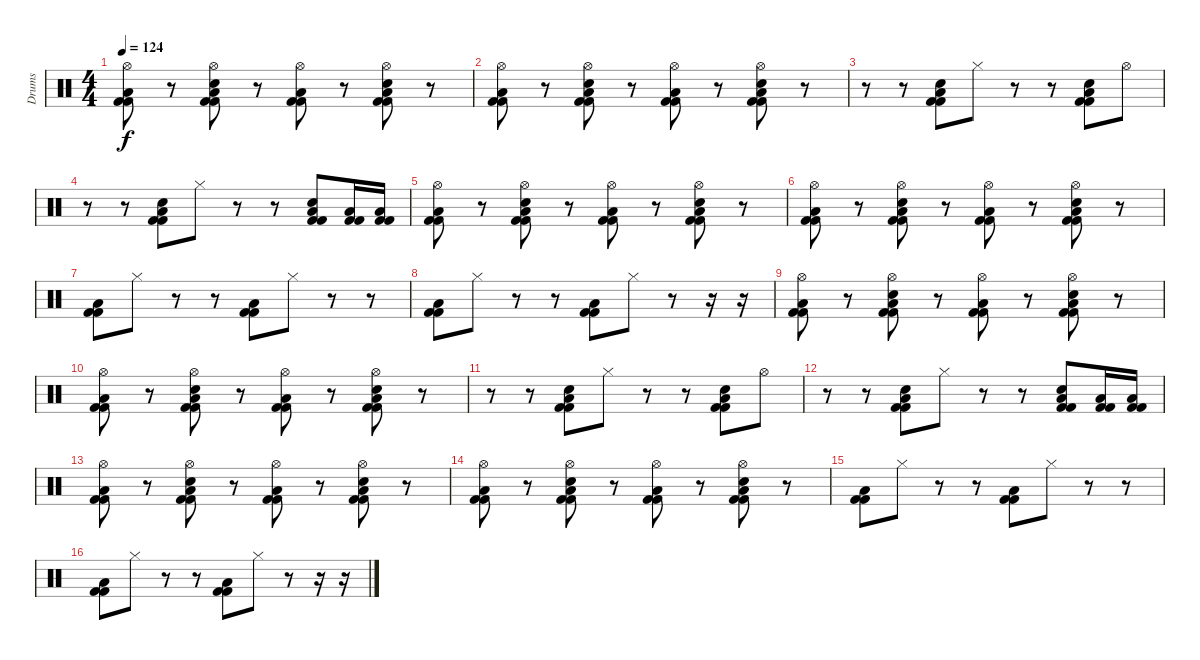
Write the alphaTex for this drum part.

\track ("Drums" "Drums") {instrument percussion}
\staff {score}
\articulation defaults
\ts (4 4)
\tempo 124
\clef neutral
\ks c
("Hi-Hat (open)" "Kick (hit) 2" "Low Floor Tom (hit)" "Kick (hit) 2").8{dy f} r.8 ("Hi-Hat (open)" "Electric Snare (hit)" "Kick (hit) 2" "Low Floor Tom (hit)" "Kick (hit) 2").8 r.8 ("Hi-Hat (open)" "Kick (hit) 2" "Low Floor Tom (hit)" "Kick (hit) 2").8 r.8 ("Hi-Hat (open)" "Electric Snare (hit)" "Kick (hit) 2" "Low Floor Tom (hit)" "Kick (hit) 2").8 r.8 |
("Hi-Hat (open)" "Kick (hit) 2" "Low Floor Tom (hit)" "Kick (hit) 2").8 r.8 ("Hi-Hat (open)" "Electric Snare (hit)" "Kick (hit) 2" "Low Floor Tom (hit)" "Kick (hit) 2").8 r.8 ("Hi-Hat (open)" "Kick (hit) 2" "Low Floor Tom (hit)" "Kick (hit) 2").8 r.8 ("Hi-Hat (open)" "Electric Snare (hit)" "Kick (hit) 2" "Low Floor Tom (hit)" "Kick (hit) 2").8 r.8 |
r.8 r.8 ("Electric Snare (hit)" "Kick (hit) 2" "Low Floor Tom (hit)" "Kick (hit) 2").8 "Hi-Hat (closed)".8 r.8 r.8 ("Electric Snare (hit)" "Kick (hit) 2" "Low Floor Tom (hit)" "Kick (hit) 2").8 "Hi-Hat (open)".8 |
r.8 r.8 ("Electric Snare (hit)" "Kick (hit) 2" "Low Floor Tom (hit)" "Kick (hit) 2").8 "Hi-Hat (closed)".8 r.8 r.8 ("Electric Snare (hit)" "Kick (hit) 2" "Low Floor Tom (hit)" "Kick (hit) 2").8 ("Kick (hit) 2" "Low Floor Tom (hit)" "Kick (hit) 2").16 ("Kick (hit) 2" "Low Floor Tom (hit)" "Kick (hit) 2").16 |
("Hi-Hat (open)" "Kick (hit) 2" "Low Floor Tom (hit)" "Kick (hit) 2").8 r.8 ("Hi-Hat (open)" "Electric Snare (hit)" "Kick (hit) 2" "Low Floor Tom (hit)" "Kick (hit) 2").8 r.8 ("Hi-Hat (open)" "Kick (hit) 2" "Low Floor Tom (hit)" "Kick (hit) 2").8 r.8 ("Hi-Hat (open)" "Electric Snare (hit)" "Kick (hit) 2" "Low Floor Tom (hit)" "Kick (hit) 2").8 r.8 |
("Hi-Hat (open)" "Kick (hit) 2" "Low Floor Tom (hit)" "Kick (hit) 2").8 r.8 ("Hi-Hat (open)" "Electric Snare (hit)" "Kick (hit) 2" "Low Floor Tom (hit)" "Kick (hit) 2").8 r.8 ("Hi-Hat (open)" "Kick (hit) 2" "Low Floor Tom (hit)" "Kick (hit) 2").8 r.8 ("Hi-Hat (open)" "Electric Snare (hit)" "Kick (hit) 2" "Low Floor Tom (hit)" "Kick (hit) 2").8 r.8 |
("Kick (hit) 2" "Low Floor Tom (hit)" "Kick (hit) 2").8 "Hi-Hat (closed)".8 r.8 r.8 ("Kick (hit) 2" "Low Floor Tom (hit)" "Kick (hit) 2").8 "Hi-Hat (closed)".8 r.8 r.8 |
("Kick (hit) 2" "Low Floor Tom (hit)" "Kick (hit) 2").8 "Hi-Hat (closed)".8 r.8 r.8 ("Kick (hit) 2" "Low Floor Tom (hit)" "Kick (hit) 2").8 "Hi-Hat (closed)".8 r.8 r.16 r.16 |
("Hi-Hat (open)" "Kick (hit) 2" "Low Floor Tom (hit)" "Kick (hit) 2").8 r.8 ("Hi-Hat (open)" "Electric Snare (hit)" "Kick (hit) 2" "Low Floor Tom (hit)" "Kick (hit) 2").8 r.8 ("Hi-Hat (open)" "Kick (hit) 2" "Low Floor Tom (hit)" "Kick (hit) 2").8 r.8 ("Hi-Hat (open)" "Electric Snare (hit)" "Kick (hit) 2" "Low Floor Tom (hit)" "Kick (hit) 2").8 r.8 |
("Hi-Hat (open)" "Kick (hit) 2" "Low Floor Tom (hit)" "Kick (hit) 2").8 r.8 ("Hi-Hat (open)" "Electric Snare (hit)" "Kick (hit) 2" "Low Floor Tom (hit)" "Kick (hit) 2").8 r.8 ("Hi-Hat (open)" "Kick (hit) 2" "Low Floor Tom (hit)" "Kick (hit) 2").8 r.8 ("Hi-Hat (open)" "Electric Snare (hit)" "Kick (hit) 2" "Low Floor Tom (hit)" "Kick (hit) 2").8 r.8 |
r.8 r.8 ("Electric Snare (hit)" "Kick (hit) 2" "Low Floor Tom (hit)" "Kick (hit) 2").8 "Hi-Hat (closed)".8 r.8 r.8 ("Electric Snare (hit)" "Kick (hit) 2" "Low Floor Tom (hit)" "Kick (hit) 2").8 "Hi-Hat (open)".8 |
r.8 r.8 ("Electric Snare (hit)" "Kick (hit) 2" "Low Floor Tom (hit)" "Kick (hit) 2").8 "Hi-Hat (closed)".8 r.8 r.8 ("Electric Snare (hit)" "Kick (hit) 2" "Low Floor Tom (hit)" "Kick (hit) 2").8 ("Kick (hit) 2" "Low Floor Tom (hit)" "Kick (hit) 2").16 ("Kick (hit) 2" "Low Floor Tom (hit)" "Kick (hit) 2").16 |
("Hi-Hat (open)" "Kick (hit) 2" "Low Floor Tom (hit)" "Kick (hit) 2").8 r.8 ("Hi-Hat (open)" "Electric Snare (hit)" "Kick (hit) 2" "Low Floor Tom (hit)" "Kick (hit) 2").8 r.8 ("Hi-Hat (open)" "Kick (hit) 2" "Low Floor Tom (hit)" "Kick (hit) 2").8 r.8 ("Hi-Hat (open)" "Electric Snare (hit)" "Kick (hit) 2" "Low Floor Tom (hit)" "Kick (hit) 2").8 r.8 |
("Hi-Hat (open)" "Kick (hit) 2" "Low Floor Tom (hit)" "Kick (hit) 2").8 r.8 ("Hi-Hat (open)" "Electric Snare (hit)" "Kick (hit) 2" "Low Floor Tom (hit)" "Kick (hit) 2").8 r.8 ("Hi-Hat (open)" "Kick (hit) 2" "Low Floor Tom (hit)" "Kick (hit) 2").8 r.8 ("Hi-Hat (open)" "Electric Snare (hit)" "Kick (hit) 2" "Low Floor Tom (hit)" "Kick (hit) 2").8 r.8 |
("Kick (hit) 2" "Low Floor Tom (hit)" "Kick (hit) 2").8 "Hi-Hat (closed)".8 r.8 r.8 ("Kick (hit) 2" "Low Floor Tom (hit)" "Kick (hit) 2").8 "Hi-Hat (closed)".8 r.8 r.8 |
("Kick (hit) 2" "Low Floor Tom (hit)" "Kick (hit) 2").8 "Hi-Hat (closed)".8 r.8 r.8 ("Kick (hit) 2" "Low Floor Tom (hit)" "Kick (hit) 2").8 "Hi-Hat (closed)".8 r.8 r.16 r.16
